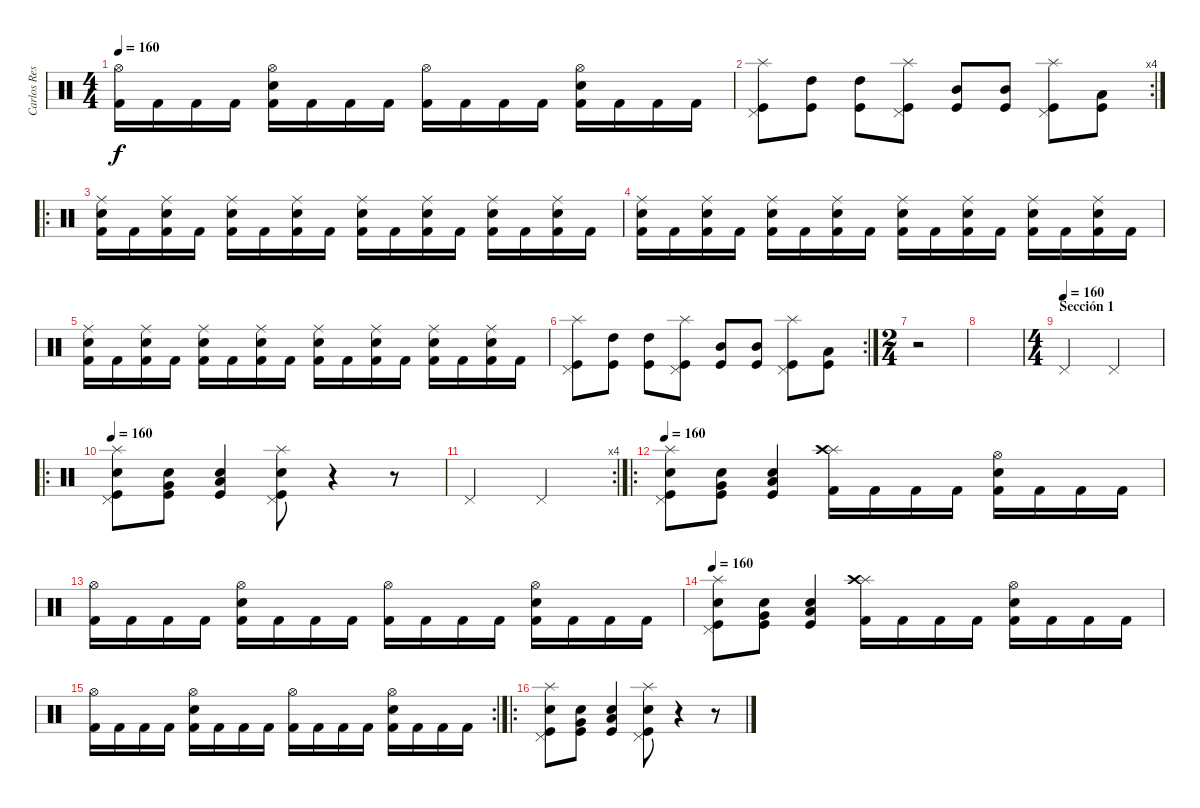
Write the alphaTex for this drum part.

\track ("Carlos Restrepo" "Carlos Res") {instrument percussion}
\staff {score}
\articulation defaults
\ts (4 4)
\tempo 160
\clef neutral
\ks c
("Hi-Hat (open)" "Kick (hit) 2").16{dy f} "Kick (hit) 2".16 "Kick (hit) 2".16 "Kick (hit) 2".16 ("Hi-Hat (open)" "Electric Snare (hit)" "Kick (hit) 2").16 "Kick (hit) 2".16 "Kick (hit) 2".16 "Kick (hit) 2".16 ("Hi-Hat (open)" "Kick (hit) 2").16 "Kick (hit) 2".16 "Kick (hit) 2".16 "Kick (hit) 2".16 ("Hi-Hat (open)" "Electric Snare (hit)" "Kick (hit) 2").16 "Kick (hit) 2".16 "Kick (hit) 2".16 "Kick (hit) 2".16 |
\rc 4
("Splash (hit)" "Pedal Hi-Hat (hit)" "Kick (hit)").8 ("High Tom (hit)" "Kick (hit)").8 ("High Tom (hit)" "Kick (hit)").8 ("Splash (hit)" "Pedal Hi-Hat (hit)" "Kick (hit)").8 ("Mid Tom (hit)" "Kick (hit)").8 ("Mid Tom (hit)" "Kick (hit)").8 ("Splash (hit)" "Pedal Hi-Hat (hit)" "Kick (hit)").8 ("Low Tom (hit)" "Kick (hit)").8 |
\ro
("Kick (hit) 2" "Snare (hit) 2" "Ride (middle)").16 "Kick (hit) 2".16 ("Kick (hit) 2" "Snare (hit) 2" "Ride (middle)").16 "Kick (hit) 2".16 ("Kick (hit) 2" "Snare (hit) 2" "Ride (middle)").16 "Kick (hit) 2".16 ("Kick (hit) 2" "Snare (hit) 2" "Ride (middle)").16 "Kick (hit) 2".16 ("Kick (hit) 2" "Snare (hit) 2" "Ride (middle)").16 "Kick (hit) 2".16 ("Kick (hit) 2" "Snare (hit) 2" "Ride (middle)").16 "Kick (hit) 2".16 ("Kick (hit) 2" "Snare (hit) 2" "Ride (middle)").16 "Kick (hit) 2".16 ("Kick (hit) 2" "Snare (hit) 2" "Ride (middle)").16 "Kick (hit) 2".16 |
("Kick (hit) 2" "Snare (hit) 2" "Ride (middle)").16 "Kick (hit) 2".16 ("Kick (hit) 2" "Snare (hit) 2" "Ride (middle)").16 "Kick (hit) 2".16 ("Kick (hit) 2" "Snare (hit) 2" "Ride (middle)").16 "Kick (hit) 2".16 ("Kick (hit) 2" "Snare (hit) 2" "Ride (middle)").16 "Kick (hit) 2".16 ("Kick (hit) 2" "Snare (hit) 2" "Ride (middle)").16 "Kick (hit) 2".16 ("Kick (hit) 2" "Snare (hit) 2" "Ride (middle)").16 "Kick (hit) 2".16 ("Kick (hit) 2" "Snare (hit) 2" "Ride (middle)").16 "Kick (hit) 2".16 ("Kick (hit) 2" "Snare (hit) 2" "Ride (middle)").16 "Kick (hit) 2".16 |
("Kick (hit) 2" "Snare (hit) 2" "Ride (middle)").16 "Kick (hit) 2".16 ("Kick (hit) 2" "Snare (hit) 2" "Ride (middle)").16 "Kick (hit) 2".16 ("Kick (hit) 2" "Snare (hit) 2" "Ride (middle)").16 "Kick (hit) 2".16 ("Kick (hit) 2" "Snare (hit) 2" "Ride (middle)").16 "Kick (hit) 2".16 ("Kick (hit) 2" "Snare (hit) 2" "Ride (middle)").16 "Kick (hit) 2".16 ("Kick (hit) 2" "Snare (hit) 2" "Ride (middle)").16 "Kick (hit) 2".16 ("Kick (hit) 2" "Snare (hit) 2" "Ride (middle)").16 "Kick (hit) 2".16 ("Kick (hit) 2" "Snare (hit) 2" "Ride (middle)").16 "Kick (hit) 2".16 |
\rc 2
("Splash (hit)" "Pedal Hi-Hat (hit)" "Kick (hit)").8 ("High Tom (hit)" "Kick (hit)").8 ("High Tom (hit)" "Kick (hit)").8 ("Splash (hit)" "Pedal Hi-Hat (hit)" "Kick (hit)").8 ("Mid Tom (hit)" "Kick (hit)").8 ("Mid Tom (hit)" "Kick (hit)").8 ("Splash (hit)" "Pedal Hi-Hat (hit)" "Kick (hit)").8 ("Low Tom (hit)" "Kick (hit)").8 |
\ts (2 4)
r.2 |
|
\ts (4 4)
\section ("" "Sección 1")
\tempo (160)
"Pedal Hi-Hat (hit)".2 "Pedal Hi-Hat (hit)".2 |
\ro
\tempo 160
("Kick (hit)" "Pedal Hi-Hat (hit)" "Snare (hit) 2" "Splash (hit)").8 ("Kick (hit)" "Snare (hit) 2" "Very Low Tom (hit)").8 ("Kick (hit)" "Snare (hit) 2" "Low Tom (hit)").4 ("Kick (hit)" "Pedal Hi-Hat (hit)" "Snare (hit) 2" "Splash (hit)").8 r.4 r.8 |
\rc 4 "Pedal Hi-Hat (hit)".2 "Pedal Hi-Hat (hit)".2
|
\ro
\tempo 160
("Kick (hit)" "Pedal Hi-Hat (hit)" "Snare (hit) 2" "Splash (hit)").8 ("Kick (hit)" "Snare (hit) 2" "Very Low Tom (hit)").8 ("Kick (hit)" "Snare (hit) 2" "Low Tom (hit)").4 ("Splash (hit)" "Crash high (hit)" "Kick (hit) 2").16 "Kick (hit) 2".16 "Kick (hit) 2".16 "Kick (hit) 2".16 ("Hi-Hat (open)" "Electric Snare (hit)" "Kick (hit) 2").16 "Kick (hit) 2".16 "Kick (hit) 2".16 "Kick (hit) 2".16 |
("Hi-Hat (open)" "Kick (hit) 2").16 "Kick (hit) 2".16 "Kick (hit) 2".16 "Kick (hit) 2".16 ("Hi-Hat (open)" "Electric Snare (hit)" "Kick (hit) 2").16 "Kick (hit) 2".16 "Kick (hit) 2".16 "Kick (hit) 2".16 ("Hi-Hat (open)" "Kick (hit) 2").16 "Kick (hit) 2".16 "Kick (hit) 2".16 "Kick (hit) 2".16 ("Hi-Hat (open)" "Electric Snare (hit)" "Kick (hit) 2").16 "Kick (hit) 2".16 "Kick (hit) 2".16 "Kick (hit) 2".16 |
\tempo 160
("Kick (hit)" "Pedal Hi-Hat (hit)" "Snare (hit) 2" "Splash (hit)").8 ("Kick (hit)" "Snare (hit) 2" "Very Low Tom (hit)").8 ("Kick (hit)" "Snare (hit) 2" "Low Tom (hit)").4 ("Splash (hit)" "Crash high (hit)" "Kick (hit) 2").16 "Kick (hit) 2".16 "Kick (hit) 2".16 "Kick (hit) 2".16 ("Hi-Hat (open)" "Electric Snare (hit)" "Kick (hit) 2").16 "Kick (hit) 2".16 "Kick (hit) 2".16 "Kick (hit) 2".16 |
\rc 2
("Hi-Hat (open)" "Kick (hit) 2").16 "Kick (hit) 2".16 "Kick (hit) 2".16 "Kick (hit) 2".16 ("Hi-Hat (open)" "Electric Snare (hit)" "Kick (hit) 2").16 "Kick (hit) 2".16 "Kick (hit) 2".16 "Kick (hit) 2".16 ("Hi-Hat (open)" "Kick (hit) 2").16 "Kick (hit) 2".16 "Kick (hit) 2".16 "Kick (hit) 2".16 ("Hi-Hat (open)" "Electric Snare (hit)" "Kick (hit) 2").16 "Kick (hit) 2".16 "Kick (hit) 2".16 "Kick (hit) 2".16 |
\ro
("Kick (hit)" "Pedal Hi-Hat (hit)" "Snare (hit) 2" "Splash (hit)").8 ("Kick (hit)" "Snare (hit) 2" "Very Low Tom (hit)").8 ("Kick (hit)" "Snare (hit) 2" "Low Tom (hit)").4 ("Kick (hit)" "Pedal Hi-Hat (hit)" "Snare (hit) 2" "Splash (hit)").8 r.4 r.8
